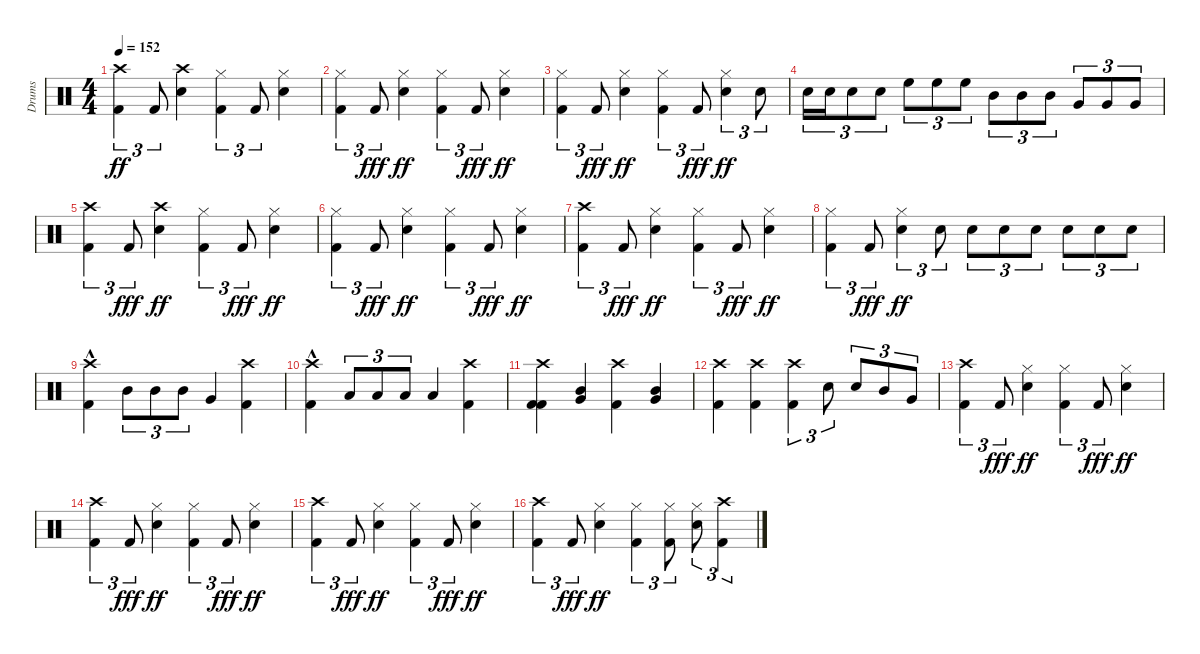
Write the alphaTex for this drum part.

\track ("Drums" "Drums") {instrument percussion}
\staff {score}
\articulation defaults
\ts (4 4)
\tempo 152
\clef neutral
\ks c
("Kick (hit) 2" "Crash high (hit)").4{tu (3 2) dy ff} "Kick (hit) 2".8{tu (3 2)} ("Snare (hit) 2" "Crash high (hit)").4 ("Kick (hit) 2" "Hi-Hat (closed)").4{tu (3 2)} "Kick (hit) 2".8{tu (3 2)} ("Snare (hit) 2" "Hi-Hat (closed)").4 |
("Kick (hit) 2" "Hi-Hat (closed)").4{tu (3 2)} "Kick (hit) 2".8{tu (3 2) dy fff} ("Snare (hit) 2" "Hi-Hat (closed)").4{dy ff} ("Kick (hit) 2" "Hi-Hat (closed)").4{tu (3 2)} "Kick (hit) 2".8{tu (3 2) dy fff} ("Snare (hit) 2" "Hi-Hat (closed)").4{dy ff} |
("Kick (hit) 2" "Hi-Hat (closed)").4{tu (3 2)} "Kick (hit) 2".8{tu (3 2) dy fff} ("Snare (hit) 2" "Hi-Hat (closed)").4{dy ff} ("Kick (hit) 2" "Hi-Hat (closed)").4{tu (3 2)} "Kick (hit) 2".8{tu (3 2) dy fff} ("Snare (hit) 2" "Hi-Hat (closed)").4{tu (3 2) dy ff} "Snare (hit) 2".8{tu (3 2)} |
"Snare (hit) 2".16{tu (3 2)} "Snare (hit) 2".16{tu (3 2)} "Snare (hit) 2".8{tu (3 2)} "Snare (hit) 2".8{tu (3 2)} "High Floor Tom (hit)".8{tu (3 2)} "High Floor Tom (hit)".8{tu (3 2)} "High Floor Tom (hit)".8{tu (3 2)} "Mid Tom (hit)".8{tu (3 2)} "Mid Tom (hit)".8{tu (3 2)} "Mid Tom (hit)".8{tu (3 2)} "Very Low Tom (hit)".8{tu (3 2)} "Very Low Tom (hit)".8{tu (3 2)} "Very Low Tom (hit)".8{tu (3 2)} |
("Kick (hit) 2" "Crash high (hit)").4{tu (3 2)} "Kick (hit) 2".8{tu (3 2) dy fff} ("Snare (hit) 2" "Crash high (hit)").4{dy ff} ("Kick (hit) 2" "Hi-Hat (closed)").4{tu (3 2)} "Kick (hit) 2".8{tu (3 2) dy fff} ("Snare (hit) 2" "Hi-Hat (closed)").4{dy ff} |
("Kick (hit) 2" "Hi-Hat (closed)").4{tu (3 2)} "Kick (hit) 2".8{tu (3 2) dy fff} ("Snare (hit) 2" "Hi-Hat (closed)").4{dy ff} ("Kick (hit) 2" "Hi-Hat (closed)").4{tu (3 2)} "Kick (hit) 2".8{tu (3 2) dy fff} ("Snare (hit) 2" "Hi-Hat (closed)").4{dy ff} |
("Kick (hit) 2" "Crash high (hit)").4{tu (3 2)} "Kick (hit) 2".8{tu (3 2) dy fff} ("Snare (hit) 2" "Hi-Hat (closed)").4{dy ff} ("Kick (hit) 2" "Hi-Hat (closed)").4{tu (3 2)} "Kick (hit) 2".8{tu (3 2) dy fff} ("Snare (hit) 2" "Hi-Hat (closed)").4{dy ff} |
("Kick (hit) 2" "Hi-Hat (closed)").4{tu (3 2)} "Kick (hit) 2".8{tu (3 2) dy fff} ("Snare (hit) 2" "Hi-Hat (closed)").4{tu (3 2) dy ff} "Snare (hit) 2".8{tu (3 2)} "Snare (hit) 2".8{tu (3 2)} "Snare (hit) 2".8{tu (3 2)} "Snare (hit) 2".8{tu (3 2)} "Snare (hit) 2".8{tu (3 2)} "Snare (hit) 2".8{tu (3 2)} "Snare (hit) 2".8{tu (3 2)} |
("Kick (hit) 2"{hac} "Crash high (hit)"{hac}).4 "Mid Tom (hit)".8{tu (3 2)} "Mid Tom (hit)".8{tu (3 2)} "Mid Tom (hit)".8{tu (3 2)} "Very Low Tom (hit)".4 ("Kick (hit) 2" "Crash high (hit)").4 |
("Kick (hit) 2"{hac} "Crash high (hit)"{hac}).4 "Low Tom (hit)".8{tu (3 2)} "Low Tom (hit)".8{tu (3 2)} "Low Tom (hit)".8{tu (3 2)} "Low Floor Tom (hit)".4 ("Kick (hit) 2" "Crash high (hit)").4 |
("Kick (hit) 2" "Kick (hit) 2" "Crash high (hit)").4 ("Very Low Tom (hit)" "Mid Tom (hit)").4 ("Kick (hit) 2" "Crash high (hit)").4 ("Very Low Tom (hit)" "Mid Tom (hit)").4 |
("Kick (hit) 2" "Crash high (hit)").4 ("Kick (hit) 2" "Crash high (hit)").4 ("Kick (hit) 2" "Crash high (hit)").4{tu (3 2)} "Snare (hit) 2".8{tu (3 2)} "Snare (hit) 2".8{tu (3 2)} "Mid Tom (hit)".8{tu (3 2)} "Very Low Tom (hit)".8{tu (3 2)} |
("Kick (hit) 2" "Crash high (hit)").4{tu (3 2)} "Kick (hit) 2".8{tu (3 2) dy fff} ("Snare (hit) 2" "Hi-Hat (closed)").4{dy ff} ("Kick (hit) 2" "Hi-Hat (closed)").4{tu (3 2)} "Kick (hit) 2".8{tu (3 2) dy fff} ("Snare (hit) 2" "Hi-Hat (closed)").4{dy ff} |
("Kick (hit) 2" "Crash high (hit)").4{tu (3 2)} "Kick (hit) 2".8{tu (3 2) dy fff} ("Snare (hit) 2" "Hi-Hat (closed)").4{dy ff} ("Kick (hit) 2" "Hi-Hat (closed)").4{tu (3 2)} "Kick (hit) 2".8{tu (3 2) dy fff} ("Snare (hit) 2" "Hi-Hat (closed)").4{dy ff} |
("Kick (hit) 2" "Crash high (hit)").4{tu (3 2)} "Kick (hit) 2".8{tu (3 2) dy fff} ("Snare (hit) 2" "Hi-Hat (closed)").4{dy ff} ("Kick (hit) 2" "Hi-Hat (closed)").4{tu (3 2)} "Kick (hit) 2".8{tu (3 2) dy fff} ("Snare (hit) 2" "Hi-Hat (closed)").4{dy ff} |
("Kick (hit) 2" "Crash high (hit)").4{tu (3 2)} "Kick (hit) 2".8{tu (3 2) dy fff} ("Snare (hit) 2" "Hi-Hat (closed)").4{dy ff} ("Kick (hit) 2" "Hi-Hat (closed)").4{tu (3 2)} ("Kick (hit) 2" "Hi-Hat (closed)").8{tu (3 2)} ("Snare (hit) 2" "Hi-Hat (closed)").8{tu (3 2)} ("Kick (hit) 2" "Crash high (hit)").4{tu (3 2)}
